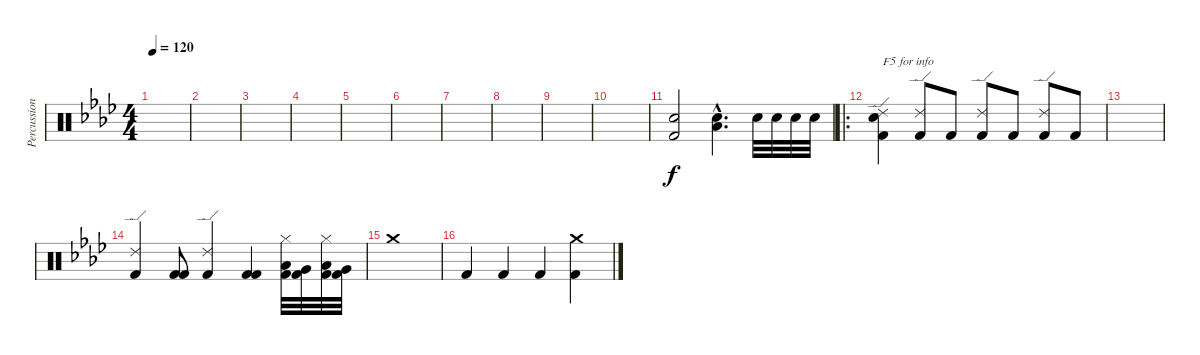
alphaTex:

\track ("Percussion" "Percussion") {instrument percussion}
\staff {score}
\articulation defaults
\ts (4 4)
\tempo 120
\clef neutral
\ks fminor
|
|
|
|
|
|
|
|
|
|
("Electric Snare (hit)" "Kick (hit) 2").2 ("Electric Snare (hit)"{hac} "Low Floor Tom (hit)"{hac}).4{d} "Electric Snare (hit)".32 "Electric Snare (hit)".32 "Electric Snare (hit)".32 "Electric Snare (hit)".32 |
\ro
("Kick (hit) 2" "Electric Snare (hit)" "Ride (edge) 2").4{txt "F5 for info"} ("Kick (hit) 2" "Ride (edge) 2").8 "Kick (hit) 2".8 ("Kick (hit) 2" "Ride (edge) 2").8 "Kick (hit) 2".8 ("Kick (hit) 2" "Ride (edge) 2").8 "Kick (hit) 2".8 |
|
("Kick (hit) 2" "Ride (edge) 2").4 ("Kick (hit) 2" "Kick (hit) 2").8 ("Kick (hit) 2" "Ride (edge) 2").4 ("Kick (hit) 2" "Kick (hit) 2").4 ("Kick (hit) 2" "Hi-Hat (closed)" "Low Floor Tom (hit)").32 ("Kick (hit) 2" "Very Low Tom (hit)").32 ("Kick (hit) 2" "Hi-Hat (closed)" "Low Floor Tom (hit)").32 ("Kick (hit) 2" "Very Low Tom (hit)").32 |
"Crash medium (hit)".1 |
"Kick (hit) 2".4 "Kick (hit) 2".4 "Kick (hit) 2".4 ("Kick (hit) 2" "Crash medium (hit)").4
